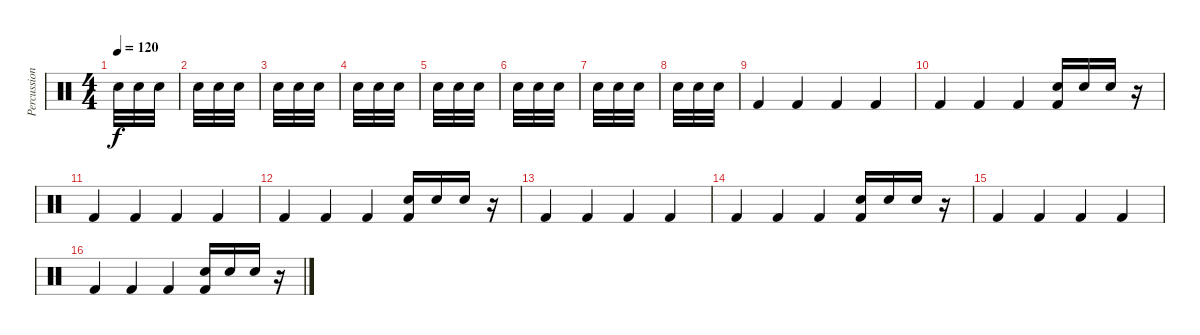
\track ("Percussion" "Percussion") {instrument percussion}
\staff {score}
\articulation defaults
\ts (4 4)
\tempo 120
\clef neutral
\ks c "Electric Snare (hit)".32{dy f} "Electric Snare (hit)".32 "Electric Snare (hit)".32
|
"Electric Snare (hit)".32 "Electric Snare (hit)".32 "Electric Snare (hit)".32 |
"Electric Snare (hit)".32 "Electric Snare (hit)".32 "Electric Snare (hit)".32 |
"Electric Snare (hit)".32 "Electric Snare (hit)".32 "Electric Snare (hit)".32 |
"Electric Snare (hit)".32 "Electric Snare (hit)".32 "Electric Snare (hit)".32 |
"Electric Snare (hit)".32 "Electric Snare (hit)".32 "Electric Snare (hit)".32 |
"Electric Snare (hit)".32 "Electric Snare (hit)".32 "Electric Snare (hit)".32 |
"Electric Snare (hit)".32 "Electric Snare (hit)".32 "Electric Snare (hit)".32 |
"Kick (hit) 2".4 "Kick (hit) 2".4 "Kick (hit) 2".4 "Kick (hit) 2".4 |
"Kick (hit) 2".4 "Kick (hit) 2".4 "Kick (hit) 2".4 ("Electric Snare (hit)" "Kick (hit) 2").16 "Electric Snare (hit)".16 "Electric Snare (hit)".16 r.16 |
"Kick (hit) 2".4 "Kick (hit) 2".4 "Kick (hit) 2".4 "Kick (hit) 2".4 |
"Kick (hit) 2".4 "Kick (hit) 2".4 "Kick (hit) 2".4 ("Electric Snare (hit)" "Kick (hit) 2").16 "Electric Snare (hit)".16 "Electric Snare (hit)".16 r.16 |
"Kick (hit) 2".4 "Kick (hit) 2".4 "Kick (hit) 2".4 "Kick (hit) 2".4 |
"Kick (hit) 2".4 "Kick (hit) 2".4 "Kick (hit) 2".4 ("Electric Snare (hit)" "Kick (hit) 2").16 "Electric Snare (hit)".16 "Electric Snare (hit)".16 r.16 |
"Kick (hit) 2".4 "Kick (hit) 2".4 "Kick (hit) 2".4 "Kick (hit) 2".4 |
"Kick (hit) 2".4 "Kick (hit) 2".4 "Kick (hit) 2".4 ("Electric Snare (hit)" "Kick (hit) 2").16 "Electric Snare (hit)".16 "Electric Snare (hit)".16 r.16
